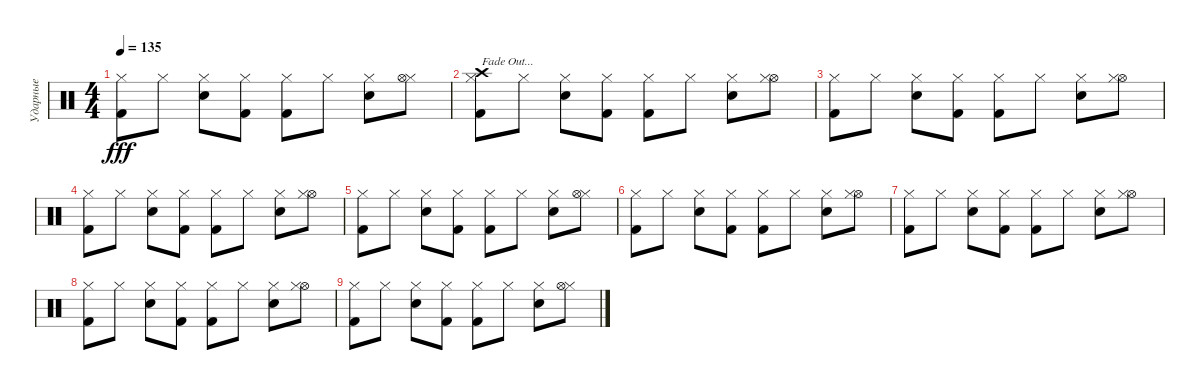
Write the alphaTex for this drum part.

\track ("Ударные" "Ударные") {instrument percussion}
\staff {score}
\articulation defaults
\ts (4 4)
\tempo 135
\clef neutral
\ks c
("Hi-Hat (closed)" "Kick (hit) 2").8{dy fff} "Hi-Hat (closed)".8 ("Hi-Hat (closed)" "Snare (hit) 2").8 ("Kick (hit) 2" "Hi-Hat (closed)").8 ("Hi-Hat (closed)" "Kick (hit) 2").8 "Hi-Hat (closed)".8 ("Snare (hit) 2" "Hi-Hat (closed)").8 ("Hi-Hat (closed)" "Hi-Hat (open)").8 |
("Crash high (hit)" "Hi-Hat (closed)" "Kick (hit) 2").8{txt "Fade Out..."} "Hi-Hat (closed)".8 ("Hi-Hat (closed)" "Snare (hit) 2").8 ("Hi-Hat (closed)" "Kick (hit) 2").8{volume 11} ("Hi-Hat (closed)" "Kick (hit) 2").8 "Hi-Hat (closed)".8 ("Snare (hit) 2" "Hi-Hat (closed)").8 ("Hi-Hat (open)" "Hi-Hat (closed)").8 |
("Hi-Hat (closed)" "Kick (hit) 2").8{volume 10} "Hi-Hat (closed)".8 ("Hi-Hat (closed)" "Snare (hit) 2").8 ("Kick (hit) 2" "Hi-Hat (closed)").8 ("Hi-Hat (closed)" "Kick (hit) 2").8 "Hi-Hat (closed)".8 ("Hi-Hat (closed)" "Snare (hit) 2").8{volume 9} ("Hi-Hat (open)" "Hi-Hat (closed)").8 |
("Hi-Hat (closed)" "Kick (hit) 2").8 "Hi-Hat (closed)".8 ("Snare (hit) 2" "Hi-Hat (closed)").8 ("Hi-Hat (closed)" "Kick (hit) 2").8{volume 8} ("Hi-Hat (closed)" "Kick (hit) 2").8 "Hi-Hat (closed)".8 ("Hi-Hat (closed)" "Snare (hit) 2").8 ("Hi-Hat (open)" "Hi-Hat (closed)").8 |
("Hi-Hat (closed)" "Kick (hit) 2").8{volume 7} "Hi-Hat (closed)".8 ("Hi-Hat (closed)" "Snare (hit) 2").8 ("Kick (hit) 2" "Hi-Hat (closed)").8 ("Hi-Hat (closed)" "Kick (hit) 2").8{volume 6} "Hi-Hat (closed)".8 ("Snare (hit) 2" "Hi-Hat (closed)").8 ("Hi-Hat (closed)" "Hi-Hat (open)").8 |
("Hi-Hat (closed)" "Kick (hit) 2").8{volume 5} "Hi-Hat (closed)".8 ("Hi-Hat (closed)" "Snare (hit) 2").8 ("Hi-Hat (closed)" "Kick (hit) 2").8 ("Hi-Hat (closed)" "Kick (hit) 2").8 "Hi-Hat (closed)".8 ("Snare (hit) 2" "Hi-Hat (closed)").8 ("Hi-Hat (open)" "Hi-Hat (closed)").8 |
("Hi-Hat (closed)" "Kick (hit) 2").8 "Hi-Hat (closed)".8 ("Hi-Hat (closed)" "Snare (hit) 2").8 ("Kick (hit) 2" "Hi-Hat (closed)").8 ("Hi-Hat (closed)" "Kick (hit) 2").8{volume 4} "Hi-Hat (closed)".8 ("Hi-Hat (closed)" "Snare (hit) 2").8 ("Hi-Hat (open)" "Hi-Hat (closed)").8 |
("Hi-Hat (closed)" "Kick (hit) 2").8 "Hi-Hat (closed)".8 ("Snare (hit) 2" "Hi-Hat (closed)").8{volume 3} ("Hi-Hat (closed)" "Kick (hit) 2").8 ("Hi-Hat (closed)" "Kick (hit) 2").8 "Hi-Hat (closed)".8 ("Hi-Hat (closed)" "Snare (hit) 2").8 ("Hi-Hat (open)" "Hi-Hat (closed)").8 |
("Hi-Hat (closed)" "Kick (hit) 2").8 "Hi-Hat (closed)".8 ("Hi-Hat (closed)" "Snare (hit) 2").8 ("Kick (hit) 2" "Hi-Hat (closed)").8{volume 2} ("Hi-Hat (closed)" "Kick (hit) 2").8 "Hi-Hat (closed)".8 ("Snare (hit) 2" "Hi-Hat (closed)").8 ("Hi-Hat (closed)" "Hi-Hat (open)").8
